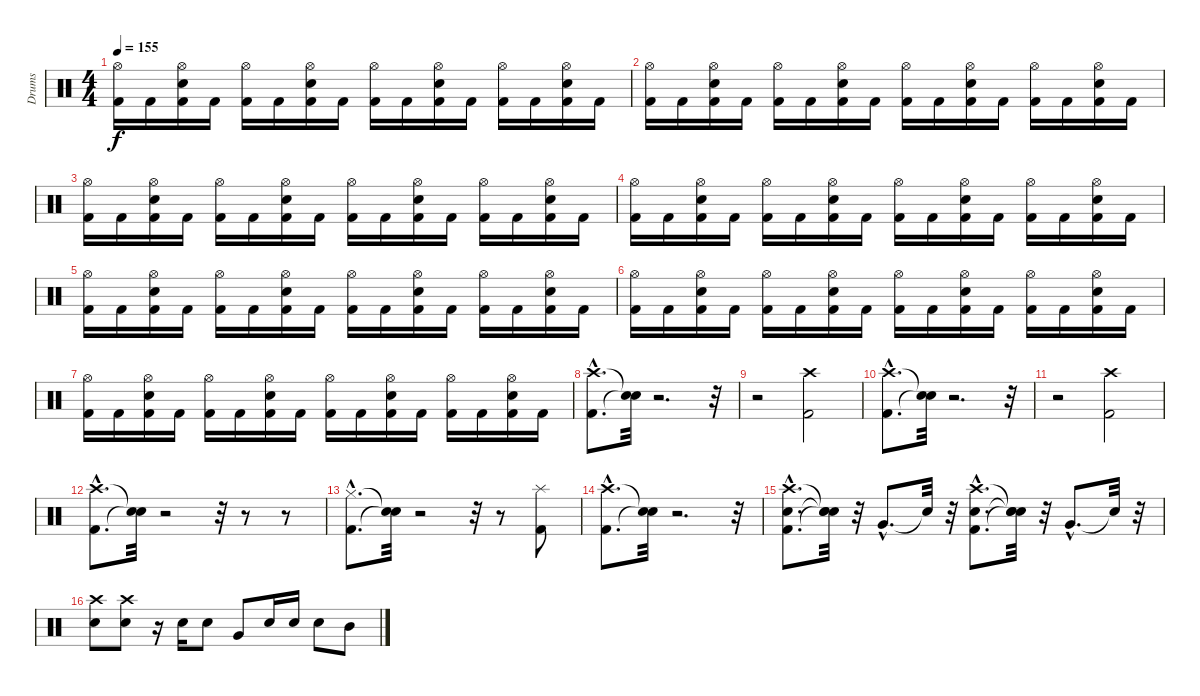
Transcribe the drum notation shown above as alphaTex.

\track ("Drums" "Drums") {instrument percussion}
\staff {score}
\articulation defaults
\ts (4 4)
\tempo 155
\clef neutral
\ks c
("Kick (hit) 2" "Hi-Hat (open)").16{dy f} "Kick (hit) 2".16 ("Kick (hit) 2" "Snare (hit) 2" "Hi-Hat (open)").16 "Kick (hit) 2".16 ("Kick (hit) 2" "Hi-Hat (open)").16 "Kick (hit) 2".16 ("Kick (hit) 2" "Snare (hit) 2" "Hi-Hat (open)").16 "Kick (hit) 2".16 ("Kick (hit) 2" "Hi-Hat (open)").16 "Kick (hit) 2".16 ("Kick (hit) 2" "Snare (hit) 2" "Hi-Hat (open)").16 "Kick (hit) 2".16 ("Kick (hit) 2" "Hi-Hat (open)").16 "Kick (hit) 2".16 ("Kick (hit) 2" "Snare (hit) 2" "Hi-Hat (open)").16 "Kick (hit) 2".16 |
("Kick (hit) 2" "Hi-Hat (open)").16 "Kick (hit) 2".16 ("Kick (hit) 2" "Snare (hit) 2" "Hi-Hat (open)").16 "Kick (hit) 2".16 ("Kick (hit) 2" "Hi-Hat (open)").16 "Kick (hit) 2".16 ("Kick (hit) 2" "Snare (hit) 2" "Hi-Hat (open)").16 "Kick (hit) 2".16 ("Kick (hit) 2" "Hi-Hat (open)").16 "Kick (hit) 2".16 ("Kick (hit) 2" "Snare (hit) 2" "Hi-Hat (open)").16 "Kick (hit) 2".16 ("Kick (hit) 2" "Hi-Hat (open)").16 "Kick (hit) 2".16 ("Kick (hit) 2" "Snare (hit) 2" "Hi-Hat (open)").16 "Kick (hit) 2".16 |
("Kick (hit) 2" "Hi-Hat (open)").16 "Kick (hit) 2".16 ("Kick (hit) 2" "Snare (hit) 2" "Hi-Hat (open)").16 "Kick (hit) 2".16 ("Kick (hit) 2" "Hi-Hat (open)").16 "Kick (hit) 2".16 ("Kick (hit) 2" "Snare (hit) 2" "Hi-Hat (open)").16 "Kick (hit) 2".16 ("Kick (hit) 2" "Hi-Hat (open)").16 "Kick (hit) 2".16 ("Kick (hit) 2" "Snare (hit) 2" "Hi-Hat (open)").16 "Kick (hit) 2".16 ("Kick (hit) 2" "Hi-Hat (open)").16 "Kick (hit) 2".16 ("Kick (hit) 2" "Snare (hit) 2" "Hi-Hat (open)").16 "Kick (hit) 2".16 |
("Kick (hit) 2" "Hi-Hat (open)").16 "Kick (hit) 2".16 ("Kick (hit) 2" "Snare (hit) 2" "Hi-Hat (open)").16 "Kick (hit) 2".16 ("Kick (hit) 2" "Hi-Hat (open)").16 "Kick (hit) 2".16 ("Kick (hit) 2" "Snare (hit) 2" "Hi-Hat (open)").16 "Kick (hit) 2".16 ("Kick (hit) 2" "Hi-Hat (open)").16 "Kick (hit) 2".16 ("Kick (hit) 2" "Snare (hit) 2" "Hi-Hat (open)").16 "Kick (hit) 2".16 ("Kick (hit) 2" "Hi-Hat (open)").16 "Kick (hit) 2".16 ("Kick (hit) 2" "Snare (hit) 2" "Hi-Hat (open)").16 "Kick (hit) 2".16 |
("Kick (hit) 2" "Hi-Hat (open)").16 "Kick (hit) 2".16 ("Kick (hit) 2" "Snare (hit) 2" "Hi-Hat (open)").16 "Kick (hit) 2".16 ("Kick (hit) 2" "Hi-Hat (open)").16 "Kick (hit) 2".16 ("Kick (hit) 2" "Snare (hit) 2" "Hi-Hat (open)").16 "Kick (hit) 2".16 ("Kick (hit) 2" "Hi-Hat (open)").16 "Kick (hit) 2".16 ("Kick (hit) 2" "Snare (hit) 2" "Hi-Hat (open)").16 "Kick (hit) 2".16 ("Kick (hit) 2" "Hi-Hat (open)").16 "Kick (hit) 2".16 ("Kick (hit) 2" "Snare (hit) 2" "Hi-Hat (open)").16 "Kick (hit) 2".16 |
("Kick (hit) 2" "Hi-Hat (open)").16 "Kick (hit) 2".16 ("Kick (hit) 2" "Snare (hit) 2" "Hi-Hat (open)").16 "Kick (hit) 2".16 ("Kick (hit) 2" "Hi-Hat (open)").16 "Kick (hit) 2".16 ("Kick (hit) 2" "Snare (hit) 2" "Hi-Hat (open)").16 "Kick (hit) 2".16 ("Kick (hit) 2" "Hi-Hat (open)").16 "Kick (hit) 2".16 ("Kick (hit) 2" "Snare (hit) 2" "Hi-Hat (open)").16 "Kick (hit) 2".16 ("Kick (hit) 2" "Hi-Hat (open)").16 "Kick (hit) 2".16 ("Kick (hit) 2" "Snare (hit) 2" "Hi-Hat (open)").16 "Kick (hit) 2".16 |
("Kick (hit) 2" "Hi-Hat (open)").16 "Kick (hit) 2".16 ("Kick (hit) 2" "Snare (hit) 2" "Hi-Hat (open)").16 "Kick (hit) 2".16 ("Kick (hit) 2" "Hi-Hat (open)").16 "Kick (hit) 2".16 ("Kick (hit) 2" "Snare (hit) 2" "Hi-Hat (open)").16 "Kick (hit) 2".16 ("Kick (hit) 2" "Hi-Hat (open)").16 "Kick (hit) 2".16 ("Kick (hit) 2" "Snare (hit) 2" "Hi-Hat (open)").16 "Kick (hit) 2".16 ("Kick (hit) 2" "Hi-Hat (open)").16 "Kick (hit) 2".16 ("Kick (hit) 2" "Snare (hit) 2" "Hi-Hat (open)").16 "Kick (hit) 2".16 |
("Kick (hit) 2"{hac} "Crash high (hit)"{hac}).8{d} ("Snare (hit)"{t} "Snare (hit)"{t}).32 r.2{d} r.32 |
r.2 ("Kick (hit) 2" "Crash high (hit)").2 |
("Kick (hit) 2"{hac} "Crash high (hit)"{hac}).8{d} ("Snare (hit)"{t} "Snare (hit)"{t}).32 r.2{d} r.32 |
r.2 ("Kick (hit) 2" "Crash high (hit)").2 |
("Kick (hit) 2"{hac} "Crash high (hit)"{hac}).8{d} ("Snare (hit)"{t} "Snare (hit)"{t}).32 r.2 r.32 r.8 r.8 |
("Kick (hit) 2"{hac} "Hi-Hat (closed)"{hac}).8{d} ("Snare (hit)"{t} "Snare (hit)"{t}).32 r.2 r.32 r.8 ("Kick (hit) 2" "Splash (hit)").8 |
("Kick (hit) 2"{hac} "Crash high (hit)"{hac}).8{d} ("Snare (hit)"{t} "Snare (hit)"{t}).32 r.2{d} r.32 |
("Kick (hit) 2"{hac} "Snare (hit) 2"{hac} "Crash high (hit)"{hac}).8{d} ("Snare (hit)"{t} "Snare (hit)"{t} "Snare (hit)"{t}).32 r.32 "Very Low Tom (hit)"{hac}.8{d} "Snare (hit)"{t}.32 r.32 ("Snare (hit) 2"{hac} "Kick (hit) 2"{hac} "Crash high (hit)"{hac}).8{d} ("Snare (hit)"{t} "Snare (hit)"{t} "Snare (hit)"{t}).32 r.32 "Very Low Tom (hit)"{hac}.8{d} "Snare (hit)"{t}.32 r.32 |
("Snare (hit) 2" "Crash high (hit)").8 ("Snare (hit) 2" "Crash high (hit)").8 r.16 "Snare (hit) 2".16 "Snare (hit) 2".8 "Very Low Tom (hit)".8 "Snare (hit) 2".16 "Snare (hit) 2".16 "Snare (hit) 2".8 "Mid Tom (hit)".8
